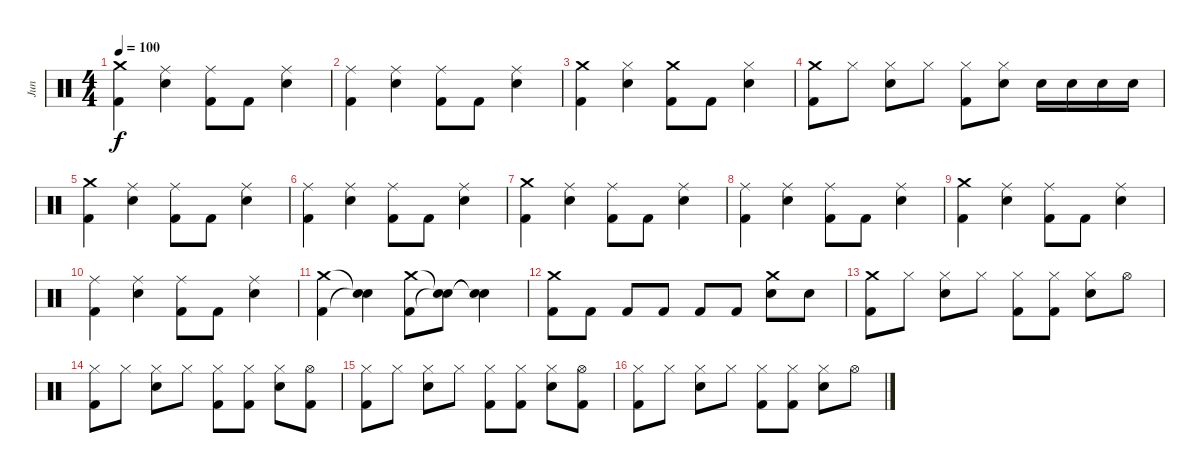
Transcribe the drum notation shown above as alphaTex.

\track ("Jun " "Jun ") {instrument percussion}
\staff {score}
\articulation defaults
\ts (4 4)
\tempo 100
\clef neutral
\ks c
("Crash medium (hit)" "Kick (hit) 2").4{dy f} ("Ride (middle)" "Snare (hit) 2").4 ("Ride (middle)" "Kick (hit) 2").8 "Kick (hit) 2".8 ("Ride (middle)" "Snare (hit) 2").4 |
("Ride (middle)" "Kick (hit) 2").4 ("Ride (middle)" "Snare (hit) 2").4 ("Ride (middle)" "Kick (hit) 2").8 "Kick (hit) 2".8 ("Ride (middle)" "Snare (hit) 2").4 |
("Crash medium (hit)" "Kick (hit) 2").4 ("Hi-Hat (closed)" "Snare (hit) 2").4 ("Crash medium (hit)" "Kick (hit) 2").8 "Kick (hit) 2".8 ("Hi-Hat (closed)" "Snare (hit) 2").4 |
("Crash medium (hit)" "Kick (hit) 2").8 "Hi-Hat (closed)".8 ("Hi-Hat (closed)" "Snare (hit) 2").8 "Hi-Hat (closed)".8 ("Hi-Hat (closed)" "Kick (hit) 2").8 ("Hi-Hat (closed)" "Snare (hit) 2").8 "Snare (hit) 2".16 "Snare (hit) 2".16 "Snare (hit) 2".16 "Snare (hit) 2".16 |
("Crash medium (hit)" "Kick (hit) 2").4 ("Ride (middle)" "Snare (hit) 2").4 ("Ride (middle)" "Kick (hit) 2").8 "Kick (hit) 2".8 ("Ride (middle)" "Snare (hit) 2").4 |
("Ride (middle)" "Kick (hit) 2").4 ("Ride (middle)" "Snare (hit) 2").4 ("Ride (middle)" "Kick (hit) 2").8 "Kick (hit) 2".8 ("Ride (middle)" "Snare (hit) 2").4 |
("Crash medium (hit)" "Kick (hit) 2").4 ("Ride (middle)" "Snare (hit) 2").4 ("Ride (middle)" "Kick (hit) 2").8 "Kick (hit) 2".8 ("Ride (middle)" "Snare (hit) 2").4 |
("Ride (middle)" "Kick (hit) 2").4 ("Ride (middle)" "Snare (hit) 2").4 ("Ride (middle)" "Kick (hit) 2").8 "Kick (hit) 2".8 ("Ride (middle)" "Snare (hit) 2").4 |
("Crash medium (hit)" "Kick (hit) 2").4 ("Ride (middle)" "Snare (hit) 2").4 ("Ride (middle)" "Kick (hit) 2").8 "Kick (hit) 2".8 ("Ride (middle)" "Snare (hit) 2").4 |
("Ride (middle)" "Kick (hit) 2").4 ("Ride (middle)" "Snare (hit) 2").4 ("Ride (middle)" "Kick (hit) 2").8 "Kick (hit) 2".8 ("Ride (middle)" "Snare (hit) 2").4 |
("Crash medium (hit)" "Kick (hit) 2").4 ("Snare (hit)"{t} "Snare (hit)"{t}).4 ("Crash medium (hit)" "Kick (hit) 2").8 ("Snare (hit)"{t} "Snare (hit)"{t}).8 ("Snare (hit)"{t} "Snare (hit)"{t}).4 |
("Crash medium (hit)" "Kick (hit) 2").8 "Kick (hit) 2".8 "Kick (hit) 2".8 "Kick (hit) 2".8 "Kick (hit) 2".8 "Kick (hit) 2".8 ("Crash medium (hit)" "Snare (hit) 2").8 "Snare (hit) 2".8 |
("Crash medium (hit)" "Kick (hit) 2").8 "Hi-Hat (closed)".8 ("Hi-Hat (closed)" "Snare (hit) 2").8 "Hi-Hat (closed)".8 ("Hi-Hat (closed)" "Kick (hit) 2").8 ("Hi-Hat (closed)" "Kick (hit) 2").8 ("Hi-Hat (closed)" "Snare (hit) 2").8 "Hi-Hat (open)".8 |
("Hi-Hat (closed)" "Kick (hit) 2").8 "Hi-Hat (closed)".8 ("Hi-Hat (closed)" "Snare (hit) 2").8 "Hi-Hat (closed)".8 ("Hi-Hat (closed)" "Kick (hit) 2").8 ("Hi-Hat (closed)" "Kick (hit) 2").8 ("Hi-Hat (closed)" "Snare (hit) 2").8 ("Hi-Hat (open)" "Kick (hit) 2").8 |
("Hi-Hat (closed)" "Kick (hit) 2").8 "Hi-Hat (closed)".8 ("Hi-Hat (closed)" "Snare (hit) 2").8 "Hi-Hat (closed)".8 ("Hi-Hat (closed)" "Kick (hit) 2").8 ("Hi-Hat (closed)" "Kick (hit) 2").8 ("Hi-Hat (closed)" "Snare (hit) 2").8 ("Hi-Hat (open)" "Kick (hit) 2").8 |
("Hi-Hat (closed)" "Kick (hit) 2").8 "Hi-Hat (closed)".8 ("Hi-Hat (closed)" "Snare (hit) 2").8 "Hi-Hat (closed)".8 ("Hi-Hat (closed)" "Kick (hit) 2").8 ("Hi-Hat (closed)" "Kick (hit) 2").8 ("Hi-Hat (closed)" "Snare (hit) 2").8 "Hi-Hat (open)".8
